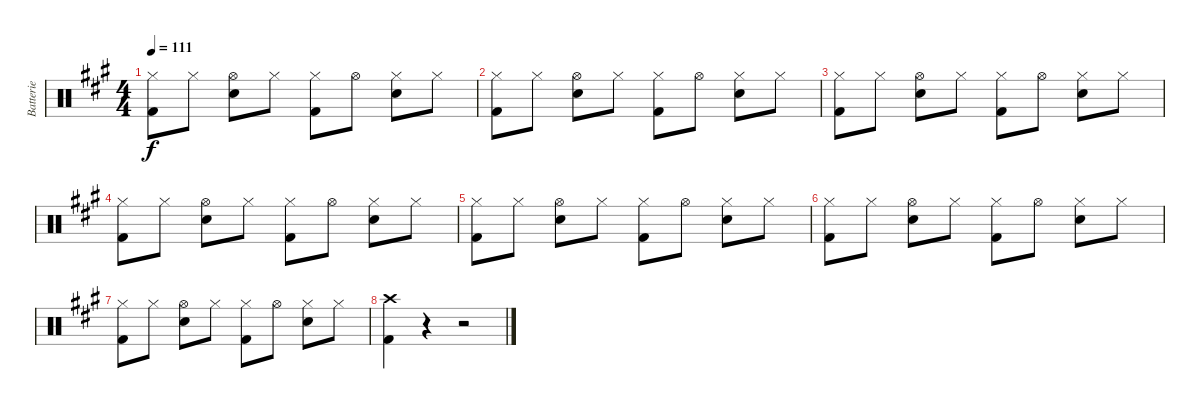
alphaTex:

\track ("Batterie" "Batterie") {instrument percussion}
\staff {score}
\articulation defaults
\ts (4 4)
\tempo 111
\clef neutral
\ks a
("Hi-Hat (closed)" "Kick (hit) 2").8{dy f} "Hi-Hat (closed)".8 ("Hi-Hat (open)" "Snare (hit) 2").8 "Hi-Hat (closed)".8 ("Hi-Hat (closed)" "Kick (hit) 2").8 "Hi-Hat (open)".8 ("Hi-Hat (closed)" "Snare (hit) 2").8 "Hi-Hat (closed)".8 |
("Hi-Hat (closed)" "Kick (hit) 2").8 "Hi-Hat (closed)".8 ("Hi-Hat (open)" "Snare (hit) 2").8 "Hi-Hat (closed)".8 ("Hi-Hat (closed)" "Kick (hit) 2").8 "Hi-Hat (open)".8 ("Hi-Hat (closed)" "Snare (hit) 2").8 "Hi-Hat (closed)".8 |
("Hi-Hat (closed)" "Kick (hit) 2").8 "Hi-Hat (closed)".8 ("Hi-Hat (open)" "Snare (hit) 2").8 "Hi-Hat (closed)".8 ("Hi-Hat (closed)" "Kick (hit) 2").8 "Hi-Hat (open)".8 ("Hi-Hat (closed)" "Snare (hit) 2").8 "Hi-Hat (closed)".8 |
("Hi-Hat (closed)" "Kick (hit) 2").8 "Hi-Hat (closed)".8 ("Hi-Hat (open)" "Snare (hit) 2").8 "Hi-Hat (closed)".8 ("Hi-Hat (closed)" "Kick (hit) 2").8 "Hi-Hat (open)".8 ("Hi-Hat (closed)" "Snare (hit) 2").8 "Hi-Hat (closed)".8 |
("Hi-Hat (closed)" "Kick (hit) 2").8 "Hi-Hat (closed)".8 ("Hi-Hat (open)" "Snare (hit) 2").8 "Hi-Hat (closed)".8 ("Hi-Hat (closed)" "Kick (hit) 2").8 "Hi-Hat (open)".8 ("Hi-Hat (closed)" "Snare (hit) 2").8 "Hi-Hat (closed)".8 |
("Hi-Hat (closed)" "Kick (hit) 2").8 "Hi-Hat (closed)".8 ("Hi-Hat (open)" "Snare (hit) 2").8 "Hi-Hat (closed)".8 ("Hi-Hat (closed)" "Kick (hit) 2").8 "Hi-Hat (open)".8 ("Hi-Hat (closed)" "Snare (hit) 2").8 "Hi-Hat (closed)".8 |
("Hi-Hat (closed)" "Kick (hit) 2").8 "Hi-Hat (closed)".8 ("Hi-Hat (open)" "Snare (hit) 2").8 "Hi-Hat (closed)".8 ("Hi-Hat (closed)" "Kick (hit) 2").8 "Hi-Hat (open)".8 ("Hi-Hat (closed)" "Snare (hit) 2").8 "Hi-Hat (closed)".8 |
("Crash high (hit)" "Kick (hit) 2").4 r.4 r.2
